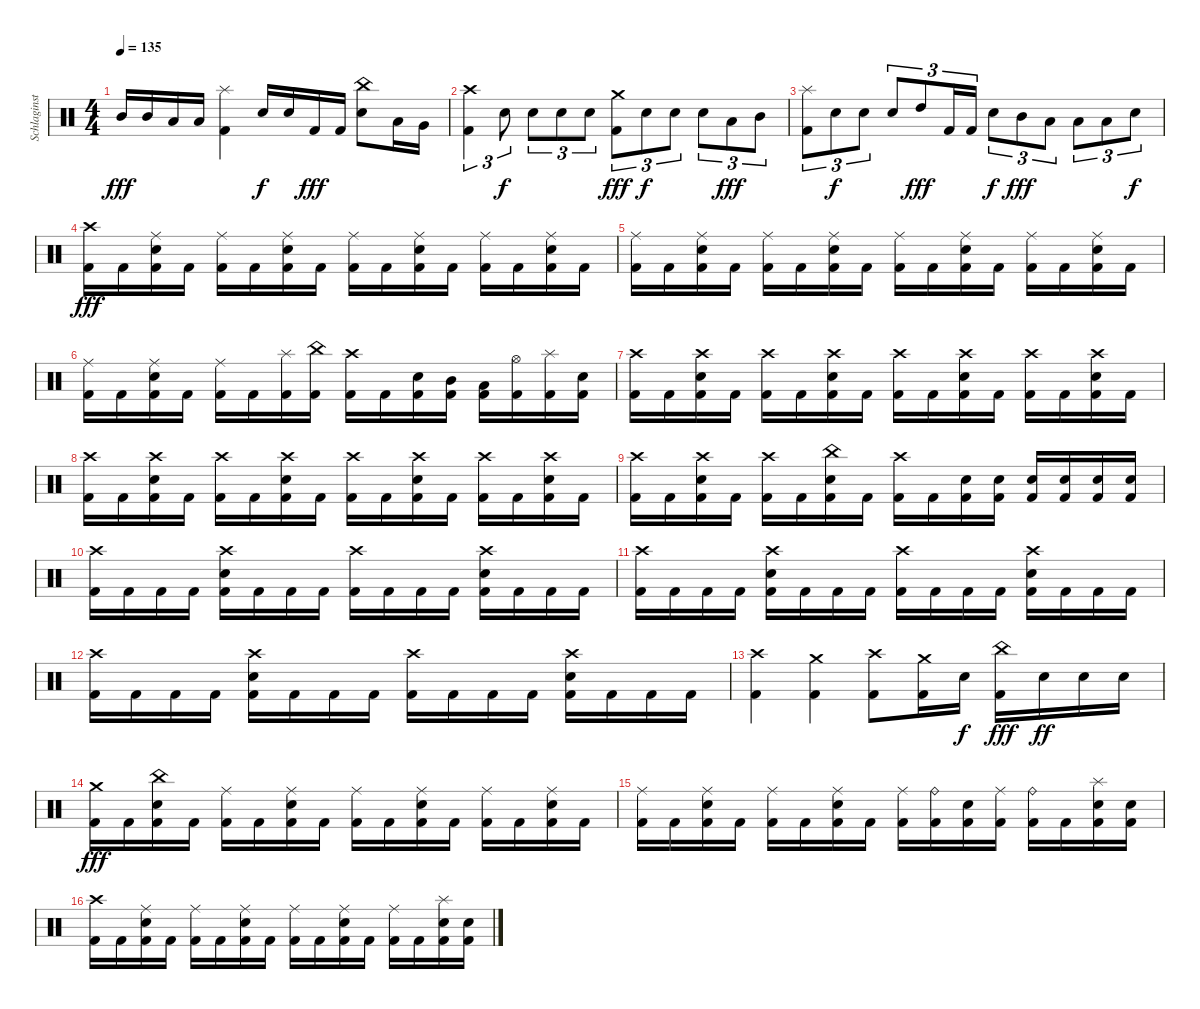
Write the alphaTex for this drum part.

\track ("Schlaginstrumente - Auswahl" "Schlaginst") {instrument percussion}
\staff {score}
\articulation defaults
\ts (4 4)
\tempo 135
\clef neutral
\ks c "Mid Tom (hit)".16{dy fff} "Mid Tom (hit)".16 "Low Tom (hit)".16 "Low Tom (hit)".16
("Splash (hit)" "Kick (hit) 2").4 "Snare (hit) 2".16{dy f} "Snare (hit) 2".16 "Kick (hit) 2".16{dy fff} "Kick (hit) 2".16 ("China (hit)" "Snare (hit) 2").8 "Low Floor Tom (hit)".16 "Very Low Tom (hit)".16 |
("Crash high (hit)" "Kick (hit) 2").4{tu (3 2)} "Snare (hit) 2".8{tu (3 2) dy f} "Snare (hit) 2".8{tu (3 2)} "Snare (hit) 2".8{tu (3 2)} "Snare (hit) 2".8{tu (3 2)} ("Crash medium (hit)" "Kick (hit) 2").8{tu (3 2) dy fff} "Snare (hit) 2".8{tu (3 2) dy f} "Snare (hit) 2".8{tu (3 2)} "Snare (hit) 2".8{tu (3 2)} "Low Tom (hit)".8{tu (3 2) dy fff} "Mid Tom (hit)".8{tu (3 2)} |
("Splash (hit)" "Kick (hit) 2").8{tu (3 2)} "Snare (hit) 2".8{tu (3 2) dy f} "Snare (hit) 2".8{tu (3 2)} "Snare (hit) 2".8{tu (3 2)} "High Tom (hit)".8{tu (3 2) dy fff} "Kick (hit) 2".16{tu (3 2)} "Kick (hit) 2".16{tu (3 2)} "Snare (hit) 2".8{tu (3 2) dy f} "Mid Tom (hit)".8{tu (3 2) dy fff} "Low Tom (hit)".8{tu (3 2)} "Low Tom (hit)".8{tu (3 2)} "Low Floor Tom (hit)".8{tu (3 2)} "Snare (hit) 2".8{tu (3 2) dy f} |
("Crash high (hit)" "Kick (hit) 2").16{dy fff} "Kick (hit) 2".16 ("Ride (middle)" "Snare (hit) 2" "Kick (hit) 2").16 "Kick (hit) 2".16 ("Ride (middle)" "Kick (hit) 2").16 "Kick (hit) 2".16 ("Ride (middle)" "Snare (hit) 2" "Kick (hit) 2").16 "Kick (hit) 2".16 ("Ride (middle)" "Kick (hit) 2").16 "Kick (hit) 2".16 ("Ride (middle)" "Snare (hit) 2" "Kick (hit) 2").16 "Kick (hit) 2".16 ("Ride (middle)" "Kick (hit) 2").16 "Kick (hit) 2".16 ("Ride (middle)" "Snare (hit) 2" "Kick (hit) 2").16 "Kick (hit) 2".16 |
("Ride (middle)" "Kick (hit) 2").16 "Kick (hit) 2".16 ("Ride (middle)" "Snare (hit) 2" "Kick (hit) 2").16 "Kick (hit) 2".16 ("Ride (middle)" "Kick (hit) 2").16 "Kick (hit) 2".16 ("Ride (middle)" "Snare (hit) 2" "Kick (hit) 2").16 "Kick (hit) 2".16 ("Ride (middle)" "Kick (hit) 2").16 "Kick (hit) 2".16 ("Ride (middle)" "Snare (hit) 2" "Kick (hit) 2").16 "Kick (hit) 2".16 ("Ride (middle)" "Kick (hit) 2").16 "Kick (hit) 2".16 ("Ride (middle)" "Snare (hit) 2" "Kick (hit) 2").16 "Kick (hit) 2".16 |
("Ride (middle)" "Kick (hit) 2").16 "Kick (hit) 2".16 ("Ride (middle)" "Snare (hit) 2" "Kick (hit) 2").16 "Kick (hit) 2".16 ("Ride (middle)" "Kick (hit) 2").16 "Kick (hit) 2".16 ("Splash (hit)" "Kick (hit) 2").16 ("China (hit)" "Kick (hit) 2").16 ("Crash high (hit)" "Kick (hit) 2").16 "Kick (hit) 2".16 ("Snare (hit) 2" "Kick (hit) 2").16 ("Mid Tom (hit)" "Kick (hit) 2").16 ("Low Tom (hit)" "Kick (hit) 2").16 ("Hi-Hat (open)" "Kick (hit) 2").16 ("Splash (hit)" "Kick (hit) 2").16 ("Snare (hit) 2" "Kick (hit) 2").16 |
("Crash high (hit)" "Kick (hit) 2").16 "Kick (hit) 2".16 ("Crash high (hit)" "Snare (hit) 2" "Kick (hit) 2").16 "Kick (hit) 2".16 ("Crash high (hit)" "Kick (hit) 2").16 "Kick (hit) 2".16 ("Crash high (hit)" "Snare (hit) 2" "Kick (hit) 2").16 "Kick (hit) 2".16 ("Crash high (hit)" "Kick (hit) 2").16 "Kick (hit) 2".16 ("Crash high (hit)" "Snare (hit) 2" "Kick (hit) 2").16 "Kick (hit) 2".16 ("Crash high (hit)" "Kick (hit) 2").16 "Kick (hit) 2".16 ("Crash high (hit)" "Snare (hit) 2" "Kick (hit) 2").16 "Kick (hit) 2".16 |
("Crash high (hit)" "Kick (hit) 2").16 "Kick (hit) 2".16 ("Crash high (hit)" "Snare (hit) 2" "Kick (hit) 2").16 "Kick (hit) 2".16 ("Crash high (hit)" "Kick (hit) 2").16 "Kick (hit) 2".16 ("Crash high (hit)" "Snare (hit) 2" "Kick (hit) 2").16 "Kick (hit) 2".16 ("Crash high (hit)" "Kick (hit) 2").16 "Kick (hit) 2".16 ("Crash high (hit)" "Snare (hit) 2" "Kick (hit) 2").16 "Kick (hit) 2".16 ("Crash high (hit)" "Kick (hit) 2").16 "Kick (hit) 2".16 ("Crash high (hit)" "Snare (hit) 2" "Kick (hit) 2").16 "Kick (hit) 2".16 |
("Crash high (hit)" "Kick (hit) 2").16 "Kick (hit) 2".16 ("Crash high (hit)" "Snare (hit) 2" "Kick (hit) 2").16 "Kick (hit) 2".16 ("Crash high (hit)" "Kick (hit) 2").16 "Kick (hit) 2".16 ("China (hit)" "Snare (hit) 2" "Kick (hit) 2").16 "Kick (hit) 2".16 ("Crash high (hit)" "Kick (hit) 2").16 "Kick (hit) 2".16 ("Snare (hit) 2" "Kick (hit) 2").16 ("Snare (hit) 2" "Kick (hit) 2").16 ("Snare (hit) 2" "Kick (hit) 2").16 ("Snare (hit) 2" "Kick (hit) 2").16 ("Snare (hit) 2" "Kick (hit) 2").16 ("Snare (hit) 2" "Kick (hit) 2").16 |
("Crash high (hit)" "Kick (hit) 2").16 "Kick (hit) 2".16 "Kick (hit) 2".16 "Kick (hit) 2".16 ("Crash high (hit)" "Snare (hit) 2" "Kick (hit) 2").16 "Kick (hit) 2".16 "Kick (hit) 2".16 "Kick (hit) 2".16 ("Crash high (hit)" "Kick (hit) 2").16 "Kick (hit) 2".16 "Kick (hit) 2".16 "Kick (hit) 2".16 ("Crash high (hit)" "Snare (hit) 2" "Kick (hit) 2").16 "Kick (hit) 2".16 "Kick (hit) 2".16 "Kick (hit) 2".16 |
("Crash high (hit)" "Kick (hit) 2").16 "Kick (hit) 2".16 "Kick (hit) 2".16 "Kick (hit) 2".16 ("Crash high (hit)" "Snare (hit) 2" "Kick (hit) 2").16 "Kick (hit) 2".16 "Kick (hit) 2".16 "Kick (hit) 2".16 ("Crash high (hit)" "Kick (hit) 2").16 "Kick (hit) 2".16 "Kick (hit) 2".16 "Kick (hit) 2".16 ("Crash high (hit)" "Snare (hit) 2" "Kick (hit) 2").16 "Kick (hit) 2".16 "Kick (hit) 2".16 "Kick (hit) 2".16 |
("Crash high (hit)" "Kick (hit) 2").16 "Kick (hit) 2".16 "Kick (hit) 2".16 "Kick (hit) 2".16 ("Crash high (hit)" "Snare (hit) 2" "Kick (hit) 2").16 "Kick (hit) 2".16 "Kick (hit) 2".16 "Kick (hit) 2".16 ("Crash high (hit)" "Kick (hit) 2").16 "Kick (hit) 2".16 "Kick (hit) 2".16 "Kick (hit) 2".16 ("Crash high (hit)" "Snare (hit) 2" "Kick (hit) 2").16 "Kick (hit) 2".16 "Kick (hit) 2".16 "Kick (hit) 2".16 |
("Crash high (hit)" "Kick (hit) 2").4 ("Crash medium (hit)" "Kick (hit) 2").4 ("Crash high (hit)" "Kick (hit) 2").8 ("Crash medium (hit)" "Kick (hit) 2").16 "Snare (hit) 2".16{dy f} ("China (hit)" "Kick (hit) 2").16{dy fff} "Snare (hit) 2".16{dy ff} "Snare (hit) 2".16 "Snare (hit) 2".16 |
("Crash medium (hit)" "Kick (hit) 2").16{dy fff} "Kick (hit) 2".16 ("China (hit)" "Snare (hit) 2" "Kick (hit) 2").16 "Kick (hit) 2".16 ("Ride (middle)" "Kick (hit) 2").16 "Kick (hit) 2".16 ("Ride (middle)" "Snare (hit) 2" "Kick (hit) 2").16 "Kick (hit) 2".16 ("Ride (middle)" "Kick (hit) 2").16 "Kick (hit) 2".16 ("Ride (middle)" "Snare (hit) 2" "Kick (hit) 2").16 "Kick (hit) 2".16 ("Ride (middle)" "Kick (hit) 2").16 "Kick (hit) 2".16 ("Ride (middle)" "Snare (hit) 2" "Kick (hit) 2").16 "Kick (hit) 2".16 |
("Ride (middle)" "Kick (hit) 2").16 "Kick (hit) 2".16 ("Ride (middle)" "Snare (hit) 2" "Kick (hit) 2").16 "Kick (hit) 2".16 ("Ride (middle)" "Kick (hit) 2").16 "Kick (hit) 2".16 ("Ride (middle)" "Snare (hit) 2" "Kick (hit) 2").16 "Kick (hit) 2".16 ("Ride (middle)" "Kick (hit) 2").16 ("Ride (bell)" "Kick (hit) 2").16 ("Snare (hit) 2" "Kick (hit) 2").16 ("Ride (middle)" "Kick (hit) 2").16 ("Ride (bell)" "Kick (hit) 2").16 "Kick (hit) 2".16 ("Splash (hit)" "Snare (hit) 2" "Kick (hit) 2").16 ("Snare (hit) 2" "Kick (hit) 2").16 |
("Crash high (hit)" "Kick (hit) 2").16 "Kick (hit) 2".16 ("Ride (middle)" "Snare (hit) 2" "Kick (hit) 2").16 "Kick (hit) 2".16 ("Ride (middle)" "Kick (hit) 2").16 "Kick (hit) 2".16 ("Ride (middle)" "Snare (hit) 2" "Kick (hit) 2").16 "Kick (hit) 2".16 ("Ride (middle)" "Kick (hit) 2").16 "Kick (hit) 2".16 ("Ride (middle)" "Snare (hit) 2" "Kick (hit) 2").16 "Kick (hit) 2".16 ("Ride (middle)" "Kick (hit) 2").16 "Kick (hit) 2".16 ("Splash (hit)" "Snare (hit) 2" "Kick (hit) 2").16 ("Snare (hit) 2" "Kick (hit) 2").16
